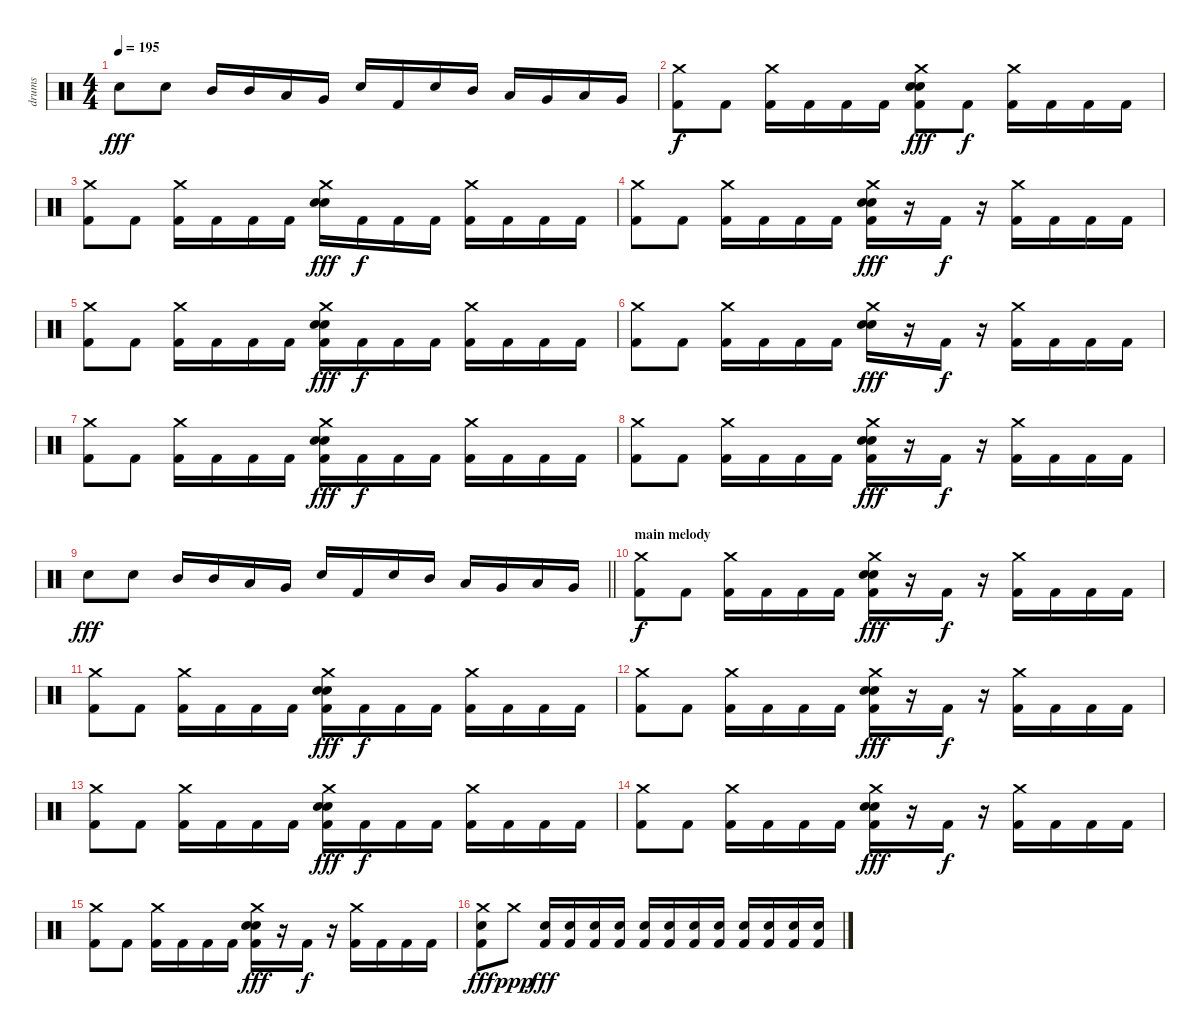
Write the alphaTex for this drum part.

\track ("drums" "drums") {instrument percussion bank 16}
\staff {score}
\articulation defaults
\ts (4 4)
\tempo 195
\clef neutral
\ks c "Electric Snare (hit)".8{dy fff} "Electric Snare (hit)".8 "Mid Tom (hit)".16 "Mid Tom (hit)".16 "Low Tom (hit)".16 "Very Low Tom (hit)".16 "Electric Snare (hit)".16 "Kick (hit) 2".16 "Electric Snare (hit)".16 "Mid Tom (hit)".16 "Low Tom (hit)".16 "Very Low Tom (hit)".16 "Low Tom (hit)".16 "Very Low Tom (hit)".16
|
("Crash medium (hit)" "Kick (hit) 2").8{dy f volume 16} "Kick (hit) 2".8 ("Crash medium (hit)" "Kick (hit) 2").16 "Kick (hit) 2".16 "Kick (hit) 2".16 "Kick (hit) 2".16 ("Crash medium (hit)" "Electric Snare (hit)" "Electric Snare (hit)" "Kick (hit) 2").8{dy fff} "Kick (hit) 2".8{dy f} ("Crash medium (hit)" "Kick (hit) 2").16 "Kick (hit) 2".16 "Kick (hit) 2".16 "Kick (hit) 2".16 |
("Crash medium (hit)" "Kick (hit) 2").8 "Kick (hit) 2".8 ("Crash medium (hit)" "Kick (hit) 2").16 "Kick (hit) 2".16 "Kick (hit) 2".16 "Kick (hit) 2".16 ("Crash medium (hit)" "Electric Snare (hit)" "Electric Snare (hit)").16{dy fff} "Kick (hit) 2".16{dy f} "Kick (hit) 2".16 "Kick (hit) 2".16 ("Crash medium (hit)" "Kick (hit) 2").16 "Kick (hit) 2".16 "Kick (hit) 2".16 "Kick (hit) 2".16 |
("Crash medium (hit)" "Kick (hit) 2").8 "Kick (hit) 2".8 ("Crash medium (hit)" "Kick (hit) 2").16 "Kick (hit) 2".16 "Kick (hit) 2".16 "Kick (hit) 2".16 ("Crash medium (hit)" "Electric Snare (hit)" "Electric Snare (hit)" "Kick (hit) 2").16{dy fff} r.16 "Kick (hit) 2".16{dy f} r.16 ("Crash medium (hit)" "Kick (hit) 2").16 "Kick (hit) 2".16 "Kick (hit) 2".16 "Kick (hit) 2".16 |
("Crash medium (hit)" "Kick (hit) 2").8 "Kick (hit) 2".8 ("Crash medium (hit)" "Kick (hit) 2").16 "Kick (hit) 2".16 "Kick (hit) 2".16 "Kick (hit) 2".16 ("Crash medium (hit)" "Electric Snare (hit)" "Electric Snare (hit)" "Kick (hit) 2").16{dy fff} "Kick (hit) 2".16{dy f} "Kick (hit) 2".16 "Kick (hit) 2".16 ("Crash medium (hit)" "Kick (hit) 2").16 "Kick (hit) 2".16 "Kick (hit) 2".16 "Kick (hit) 2".16 |
("Crash medium (hit)" "Kick (hit) 2").8 "Kick (hit) 2".8 ("Crash medium (hit)" "Kick (hit) 2").16 "Kick (hit) 2".16 "Kick (hit) 2".16 "Kick (hit) 2".16 ("Crash medium (hit)" "Electric Snare (hit)" "Electric Snare (hit)").16{dy fff} r.16 "Kick (hit) 2".16{dy f} r.16 ("Crash medium (hit)" "Kick (hit) 2").16 "Kick (hit) 2".16 "Kick (hit) 2".16 "Kick (hit) 2".16 |
("Crash medium (hit)" "Kick (hit) 2").8 "Kick (hit) 2".8 ("Crash medium (hit)" "Kick (hit) 2").16 "Kick (hit) 2".16 "Kick (hit) 2".16 "Kick (hit) 2".16 ("Crash medium (hit)" "Electric Snare (hit)" "Electric Snare (hit)" "Kick (hit) 2").16{dy fff} "Kick (hit) 2".16{dy f} "Kick (hit) 2".16 "Kick (hit) 2".16 ("Crash medium (hit)" "Kick (hit) 2").16 "Kick (hit) 2".16 "Kick (hit) 2".16 "Kick (hit) 2".16 |
("Crash medium (hit)" "Kick (hit) 2").8 "Kick (hit) 2".8 ("Crash medium (hit)" "Kick (hit) 2").16 "Kick (hit) 2".16 "Kick (hit) 2".16 "Kick (hit) 2".16 ("Crash medium (hit)" "Electric Snare (hit)" "Electric Snare (hit)" "Kick (hit) 2").16{dy fff} r.16 "Kick (hit) 2".16{dy f} r.16 ("Crash medium (hit)" "Kick (hit) 2").16 "Kick (hit) 2".16 "Kick (hit) 2".16 "Kick (hit) 2".16 |
\barLineRight lightlight "Electric Snare (hit)".8{dy fff} "Electric Snare (hit)".8 "Mid Tom (hit)".16 "Mid Tom (hit)".16 "Low Tom (hit)".16 "Very Low Tom (hit)".16 "Electric Snare (hit)".16 "Kick (hit) 2".16 "Electric Snare (hit)".16 "Mid Tom (hit)".16 "Low Tom (hit)".16 "Very Low Tom (hit)".16 "Low Tom (hit)".16 "Very Low Tom (hit)".16
|
\section ("" "main melody")
("Crash medium (hit)" "Kick (hit) 2").8{dy f} "Kick (hit) 2".8 ("Crash medium (hit)" "Kick (hit) 2").16 "Kick (hit) 2".16 "Kick (hit) 2".16 "Kick (hit) 2".16 ("Crash medium (hit)" "Electric Snare (hit)" "Electric Snare (hit)" "Kick (hit) 2").16{dy fff} r.16 "Kick (hit) 2".16{dy f} r.16 ("Crash medium (hit)" "Kick (hit) 2").16 "Kick (hit) 2".16 "Kick (hit) 2".16 "Kick (hit) 2".16 |
("Crash medium (hit)" "Kick (hit) 2").8 "Kick (hit) 2".8 ("Crash medium (hit)" "Kick (hit) 2").16 "Kick (hit) 2".16 "Kick (hit) 2".16 "Kick (hit) 2".16 ("Crash medium (hit)" "Electric Snare (hit)" "Electric Snare (hit)" "Kick (hit) 2").16{dy fff} "Kick (hit) 2".16{dy f} "Kick (hit) 2".16 "Kick (hit) 2".16 ("Crash medium (hit)" "Kick (hit) 2").16 "Kick (hit) 2".16 "Kick (hit) 2".16 "Kick (hit) 2".16 |
("Crash medium (hit)" "Kick (hit) 2").8 "Kick (hit) 2".8 ("Crash medium (hit)" "Kick (hit) 2").16 "Kick (hit) 2".16 "Kick (hit) 2".16 "Kick (hit) 2".16 ("Crash medium (hit)" "Electric Snare (hit)" "Electric Snare (hit)" "Kick (hit) 2").16{dy fff} r.16 "Kick (hit) 2".16{dy f} r.16 ("Crash medium (hit)" "Kick (hit) 2").16 "Kick (hit) 2".16 "Kick (hit) 2".16 "Kick (hit) 2".16 |
("Crash medium (hit)" "Kick (hit) 2").8 "Kick (hit) 2".8 ("Crash medium (hit)" "Kick (hit) 2").16 "Kick (hit) 2".16 "Kick (hit) 2".16 "Kick (hit) 2".16 ("Crash medium (hit)" "Electric Snare (hit)" "Electric Snare (hit)" "Kick (hit) 2").16{dy fff} "Kick (hit) 2".16{dy f} "Kick (hit) 2".16 "Kick (hit) 2".16 ("Crash medium (hit)" "Kick (hit) 2").16 "Kick (hit) 2".16 "Kick (hit) 2".16 "Kick (hit) 2".16 |
("Crash medium (hit)" "Kick (hit) 2").8 "Kick (hit) 2".8 ("Crash medium (hit)" "Kick (hit) 2").16 "Kick (hit) 2".16 "Kick (hit) 2".16 "Kick (hit) 2".16 ("Crash medium (hit)" "Electric Snare (hit)" "Electric Snare (hit)" "Kick (hit) 2").16{dy fff} r.16 "Kick (hit) 2".16{dy f} r.16 ("Crash medium (hit)" "Kick (hit) 2").16 "Kick (hit) 2".16 "Kick (hit) 2".16 "Kick (hit) 2".16 |
("Crash medium (hit)" "Kick (hit) 2").8 "Kick (hit) 2".8 ("Crash medium (hit)" "Kick (hit) 2").16 "Kick (hit) 2".16 "Kick (hit) 2".16 "Kick (hit) 2".16 ("Crash medium (hit)" "Electric Snare (hit)" "Electric Snare (hit)" "Kick (hit) 2").16{dy fff} r.16 "Kick (hit) 2".16{dy f} r.16 ("Crash medium (hit)" "Kick (hit) 2").16 "Kick (hit) 2".16 "Kick (hit) 2".16 "Kick (hit) 2".16 |
("Crash medium (hit)" "Electric Snare (hit)" "Kick (hit) 2").8{dy fff} "Crash medium (hit)".8{dy ppp} ("Electric Snare (hit)" "Kick (hit) 2").16{dy fff} ("Electric Snare (hit)" "Kick (hit) 2").16 ("Electric Snare (hit)" "Kick (hit) 2").16 ("Electric Snare (hit)" "Kick (hit) 2").16 ("Electric Snare (hit)" "Kick (hit) 2").16 ("Electric Snare (hit)" "Kick (hit) 2").16 ("Electric Snare (hit)" "Kick (hit) 2").16 ("Electric Snare (hit)" "Kick (hit) 2").16 ("Electric Snare (hit)" "Kick (hit) 2").16 ("Electric Snare (hit)" "Kick (hit) 2").16 ("Electric Snare (hit)" "Kick (hit) 2").16 ("Electric Snare (hit)" "Kick (hit) 2").16
